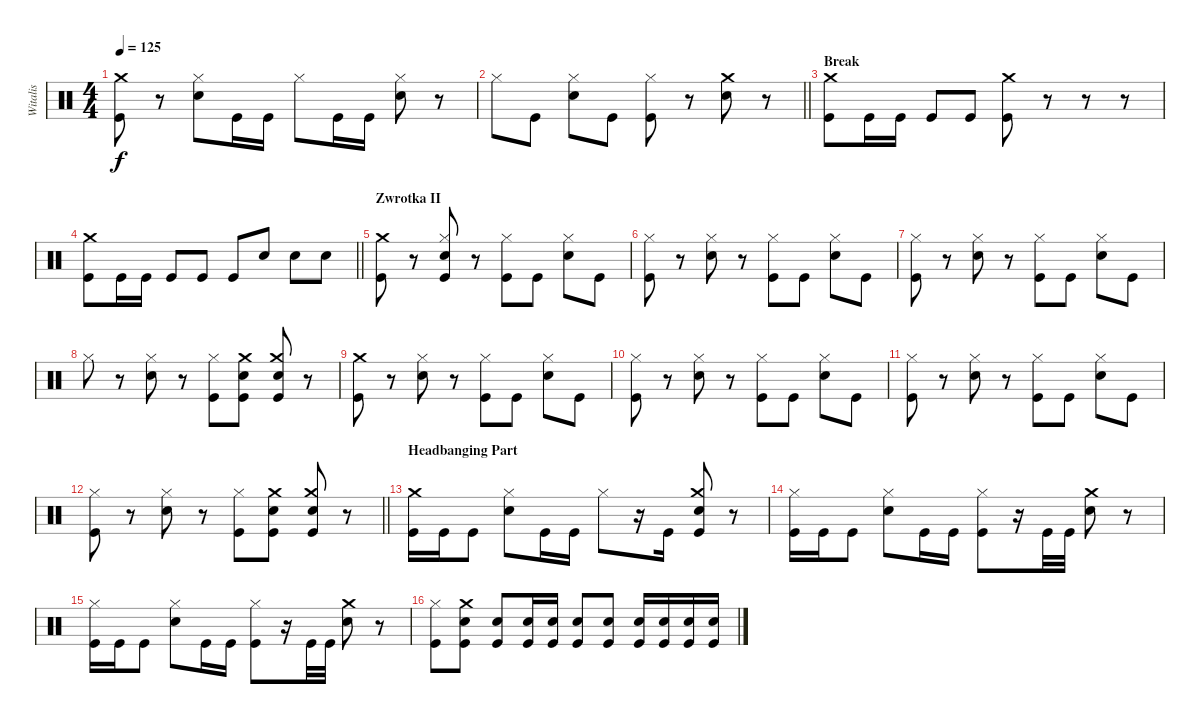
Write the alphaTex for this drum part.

\track ("Witalis" "Witalis") {instrument percussion}
\staff {score}
\articulation defaults
\ts (4 4)
\tempo 125
\clef neutral
\ks c
("Kick (hit)" "Crash medium (hit)").8{dy f} r.8 ("Hi-Hat (closed)" "Snare (hit) 2").8 "Kick (hit)".16 "Kick (hit)".16 "Hi-Hat (closed)".8 "Kick (hit)".16 "Kick (hit)".16 ("Hi-Hat (closed)" "Snare (hit) 2").8 r.8 |
\barLineRight lightlight "Hi-Hat (closed)".8 "Kick (hit)".8
("Hi-Hat (closed)" "Snare (hit) 2").8 "Kick (hit)".8 ("Hi-Hat (closed)" "Kick (hit)").8 r.8 ("Snare (hit) 2" "Crash medium (hit)").8 r.8 |
\section ("" "Break")
("Kick (hit)" "Crash medium (hit)").8 "Kick (hit)".16 "Kick (hit)".16 "Kick (hit)".8 "Kick (hit)".8 ("Kick (hit)" "Crash medium (hit)").8 r.8 r.8 r.8 |
\barLineRight lightlight
("Kick (hit)" "Crash medium (hit)").8 "Kick (hit)".16 "Kick (hit)".16 "Kick (hit)".8 "Kick (hit)".8 "Kick (hit)".8 "Snare (hit) 2".8 "Snare (hit) 2".8 "Snare (hit) 2".8 |
\section ("" "Zwrotka II")
("Kick (hit)" "Crash medium (hit)").8 r.8 ("Hi-Hat (closed)" "Kick (hit)" "Snare (hit) 2").8 r.8 ("Hi-Hat (closed)" "Kick (hit)").8 "Kick (hit)".8 ("Hi-Hat (closed)" "Snare (hit) 2").8 "Kick (hit)".8 |
("Hi-Hat (closed)" "Kick (hit)").8 r.8 ("Hi-Hat (closed)" "Snare (hit) 2").8 r.8 ("Hi-Hat (closed)" "Kick (hit)").8 "Kick (hit)".8 ("Hi-Hat (closed)" "Snare (hit) 2").8 "Kick (hit)".8 |
("Hi-Hat (closed)" "Kick (hit)").8 r.8 ("Hi-Hat (closed)" "Snare (hit) 2").8 r.8 ("Hi-Hat (closed)" "Kick (hit)").8 "Kick (hit)".8 ("Hi-Hat (closed)" "Snare (hit) 2").8 "Kick (hit)".8 |
"Hi-Hat (closed)".8 r.8 ("Hi-Hat (closed)" "Snare (hit) 2").8 r.8 ("Hi-Hat (closed)" "Kick (hit)").8 ("Kick (hit)" "Snare (hit) 2" "Crash medium (hit)").8 ("Kick (hit)" "Snare (hit) 2" "Crash medium (hit)").8 r.8 |
("Kick (hit)" "Crash medium (hit)").8 r.8 ("Hi-Hat (closed)" "Snare (hit) 2").8 r.8 ("Hi-Hat (closed)" "Kick (hit)").8 "Kick (hit)".8 ("Hi-Hat (closed)" "Snare (hit) 2").8 "Kick (hit)".8 |
("Hi-Hat (closed)" "Kick (hit)").8 r.8 ("Hi-Hat (closed)" "Snare (hit) 2").8 r.8 ("Hi-Hat (closed)" "Kick (hit)").8 "Kick (hit)".8 ("Hi-Hat (closed)" "Snare (hit) 2").8 "Kick (hit)".8 |
("Hi-Hat (closed)" "Kick (hit)").8 r.8 ("Hi-Hat (closed)" "Snare (hit) 2").8 r.8 ("Hi-Hat (closed)" "Kick (hit)").8 "Kick (hit)".8 ("Hi-Hat (closed)" "Snare (hit) 2").8 "Kick (hit)".8 |
\barLineRight lightlight
("Hi-Hat (closed)" "Kick (hit)").8 r.8 ("Hi-Hat (closed)" "Snare (hit) 2").8 r.8 ("Hi-Hat (closed)" "Kick (hit)").8 ("Kick (hit)" "Snare (hit) 2" "Crash medium (hit)").8 ("Kick (hit)" "Snare (hit) 2" "Crash medium (hit)").8 r.8 |
\section ("" "Headbanging Part")
("Kick (hit)" "Crash medium (hit)").16 "Kick (hit)".16 "Kick (hit)".8 ("Hi-Hat (closed)" "Snare (hit) 2").8 "Kick (hit)".16 "Kick (hit)".16 "Hi-Hat (closed)".8 r.16 "Kick (hit)".16 ("Kick (hit)" "Snare (hit) 2" "Crash medium (hit)").8 r.8 |
("Hi-Hat (closed)" "Kick (hit)").16 "Kick (hit)".16 "Kick (hit)".8 ("Hi-Hat (closed)" "Snare (hit) 2").8 "Kick (hit)".16 "Kick (hit)".16 ("Hi-Hat (closed)" "Kick (hit)").8 r.16 "Kick (hit)".32 "Kick (hit)".32 ("Snare (hit) 2" "Crash medium (hit)").8 r.8 |
("Hi-Hat (closed)" "Kick (hit)").16 "Kick (hit)".16 "Kick (hit)".8 ("Hi-Hat (closed)" "Snare (hit) 2").8 "Kick (hit)".16 "Kick (hit)".16 ("Hi-Hat (closed)" "Kick (hit)").8 r.16 "Kick (hit)".32 "Kick (hit)".32 ("Snare (hit) 2" "Crash medium (hit)").8 r.8 |
("Hi-Hat (closed)" "Kick (hit)").8 ("Kick (hit)" "Snare (hit) 2" "Crash medium (hit)").8 ("Kick (hit)" "Snare (hit) 2").8 ("Kick (hit)" "Snare (hit) 2").16 ("Kick (hit)" "Snare (hit) 2").16 ("Kick (hit)" "Snare (hit) 2").8 ("Kick (hit)" "Snare (hit) 2").8 ("Kick (hit)" "Snare (hit) 2").16 ("Kick (hit)" "Snare (hit) 2").16 ("Kick (hit)" "Snare (hit) 2").16 ("Kick (hit)" "Snare (hit) 2").16
